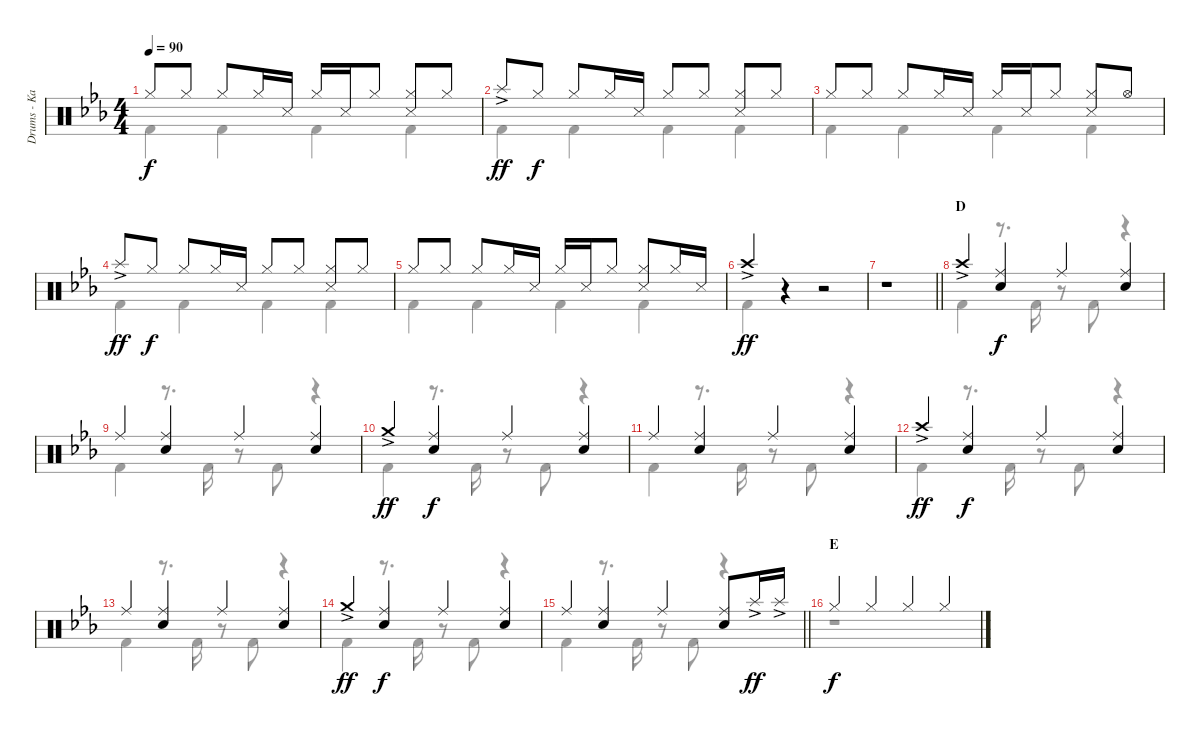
\track ("Drums - Kai" "Drums - Ka") {instrument percussion}
\staff {score}
\articulation defaults
\voice
\ts (4 4)
\tempo 90
\clef neutral
\ks eb "Hi-Hat (closed)".8{dy f} "Hi-Hat (closed)".8 "Hi-Hat (closed)".8 "Hi-Hat (closed)".16 "Snare (side stick) 3".16 "Hi-Hat (closed)".16 "Snare (side stick) 3".16 "Hi-Hat (closed)".8
("Hi-Hat (closed)" "Snare (side stick) 3").8 "Hi-Hat (closed)".8 |
"Splash (hit)"{ac}.8{dy ff} "Hi-Hat (closed)".8{dy f} "Hi-Hat (closed)".8 "Hi-Hat (closed)".16 "Snare (side stick) 3".16 "Hi-Hat (closed)".8 "Hi-Hat (closed)".8 ("Hi-Hat (closed)" "Snare (side stick) 3").8 "Hi-Hat (closed)".8 |
"Hi-Hat (closed)".8 "Hi-Hat (closed)".8 "Hi-Hat (closed)".8 "Hi-Hat (closed)".16 "Snare (side stick) 3".16 "Hi-Hat (closed)".16 "Snare (side stick) 3".16 "Hi-Hat (closed)".8 ("Hi-Hat (closed)" "Snare (side stick) 3").8 "Hi-Hat (open)".8 |
"Splash (hit)"{ac}.8{dy ff} "Hi-Hat (closed)".8{dy f} "Hi-Hat (closed)".8 "Hi-Hat (closed)".16 "Snare (side stick) 3".16 "Hi-Hat (closed)".8 "Hi-Hat (closed)".8 ("Hi-Hat (closed)" "Snare (side stick) 3").8 "Hi-Hat (closed)".8 |
"Hi-Hat (closed)".8 "Hi-Hat (closed)".8 "Hi-Hat (closed)".8 "Hi-Hat (closed)".16 "Snare (side stick) 3".16 "Hi-Hat (closed)".16 "Snare (side stick) 3".16 "Hi-Hat (closed)".8 ("Hi-Hat (closed)" "Snare (side stick) 3").8 "Hi-Hat (closed)".16 "Snare (side stick) 3".16 |
"Crash high (hit)"{ac}.4{dy ff} r.4 r.2 |
\barLineRight lightlight
r.1 |
\section ("" "D")
"Crash high (hit)"{ac}.4 ("Ride (middle)" "Snare (hit) 2").4{dy f} "Ride (middle)".4 ("Ride (middle)" "Snare (hit) 2").4 |
"Ride (middle)".4 ("Ride (middle)" "Snare (hit) 2").4 "Ride (middle)".4 ("Ride (middle)" "Snare (hit) 2").4 |
"Crash medium (hit)"{ac}.4{dy ff} ("Ride (middle)" "Snare (hit) 2").4{dy f} "Ride (middle)".4 ("Ride (middle)" "Snare (hit) 2").4 |
"Ride (middle)".4 ("Ride (middle)" "Snare (hit) 2").4 "Ride (middle)".4 ("Ride (middle)" "Snare (hit) 2").4 |
"Crash high (hit)"{ac}.4{dy ff} ("Ride (middle)" "Snare (hit) 2").4{dy f} "Ride (middle)".4 ("Ride (middle)" "Snare (hit) 2").4 |
"Ride (middle)".4 ("Ride (middle)" "Snare (hit) 2").4 "Ride (middle)".4 ("Ride (middle)" "Snare (hit) 2").4 |
"Crash medium (hit)"{ac}.4{dy ff} ("Ride (middle)" "Snare (hit) 2").4{dy f} "Ride (middle)".4 ("Ride (middle)" "Snare (hit) 2").4 |
\barLineRight lightlight "Ride (middle)".4
("Ride (middle)" "Snare (hit) 2").4 "Ride (middle)".4 ("Ride (middle)" "Snare (hit) 2").8 "Splash (hit)"{ac}.16{dy ff} "Splash (hit)"{ac}.16 |
\section ("" "E")
"Hi-Hat (closed)".4{dy f} "Hi-Hat (closed)".4 "Hi-Hat (closed)".4 "Hi-Hat (closed)".4
\voice
\clef neutral
\ottava regular
\simile none
\ks eb "Kick (hit) 2".4{dy f} "Kick (hit) 2".4 "Kick (hit) 2".4 "Kick (hit) 2".4
|
"Kick (hit) 2".4 "Kick (hit) 2".4 "Kick (hit) 2".4 "Kick (hit) 2".4 |
"Kick (hit) 2".4 "Kick (hit) 2".4 "Kick (hit) 2".4 "Kick (hit) 2".4 |
"Kick (hit) 2".4 "Kick (hit) 2".4 "Kick (hit) 2".4 "Kick (hit) 2".4 |
"Kick (hit) 2".4 "Kick (hit) 2".4 "Kick (hit) 2".4 "Kick (hit) 2".4 |
"Kick (hit) 2".4 r.4 r.2 |
\barLineRight lightlight
|
"Kick (hit) 2".4 r.8{d} "Kick (hit) 2".16 r.8 "Kick (hit) 2".8 r.4 |
"Kick (hit) 2".4 r.8{d} "Kick (hit) 2".16 r.8 "Kick (hit) 2".8 r.4 |
"Kick (hit) 2".4 r.8{d} "Kick (hit) 2".16 r.8 "Kick (hit) 2".8 r.4 |
"Kick (hit) 2".4 r.8{d} "Kick (hit) 2".16 r.8 "Kick (hit) 2".8 r.4 |
"Kick (hit) 2".4 r.8{d} "Kick (hit) 2".16 r.8 "Kick (hit) 2".8 r.4 |
"Kick (hit) 2".4 r.8{d} "Kick (hit) 2".16 r.8 "Kick (hit) 2".8 r.4 |
"Kick (hit) 2".4 r.8{d} "Kick (hit) 2".16 r.8 "Kick (hit) 2".8 r.4 |
\barLineRight lightlight "Kick (hit) 2".4
r.8{d} "Kick (hit) 2".16 r.8 "Kick (hit) 2".8 r.4 |
r.1
